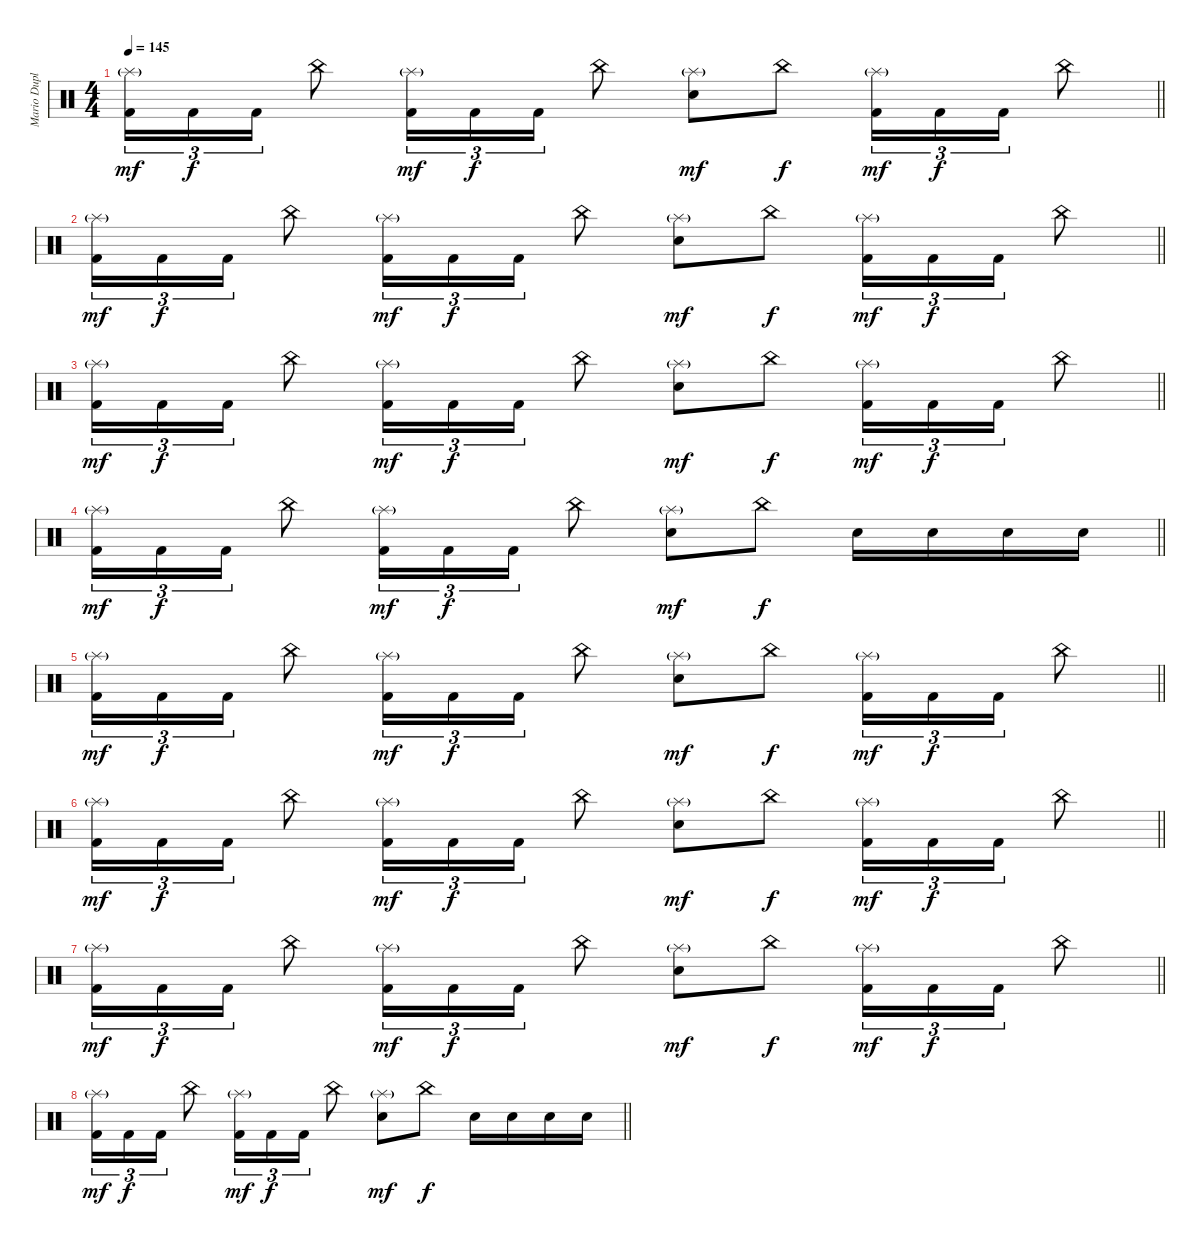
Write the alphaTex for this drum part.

\track ("Mario Duplantier" "Mario Dupl") {instrument percussion}
\staff {score}
\articulation defaults
\ts (4 4)
\tempo 145
\clef neutral
\barLineRight lightlight
\ks c
("Splash (hit)"{g} "Kick (hit) 2").16{tu (3 2) dy mf} "Kick (hit) 2".16{tu (3 2) dy f} "Kick (hit) 2".16{tu (3 2)} "China (hit)".8 ("Splash (hit)"{g} "Kick (hit) 2").16{tu (3 2) dy mf} "Kick (hit) 2".16{tu (3 2) dy f} "Kick (hit) 2".16{tu (3 2)} "China (hit)".8 ("Splash (hit)"{g} "Electric Snare (hit)").8{dy mf} "China (hit)".8{dy f} ("Splash (hit)"{g} "Kick (hit) 2").16{tu (3 2) dy mf} "Kick (hit) 2".16{tu (3 2) dy f} "Kick (hit) 2".16{tu (3 2)} "China (hit)".8 |
\barLineRight lightlight
("Splash (hit)"{g} "Kick (hit) 2").16{tu (3 2) dy mf} "Kick (hit) 2".16{tu (3 2) dy f} "Kick (hit) 2".16{tu (3 2)} "China (hit)".8 ("Splash (hit)"{g} "Kick (hit) 2").16{tu (3 2) dy mf} "Kick (hit) 2".16{tu (3 2) dy f} "Kick (hit) 2".16{tu (3 2)} "China (hit)".8 ("Splash (hit)"{g} "Electric Snare (hit)").8{dy mf} "China (hit)".8{dy f} ("Splash (hit)"{g} "Kick (hit) 2").16{tu (3 2) dy mf} "Kick (hit) 2".16{tu (3 2) dy f} "Kick (hit) 2".16{tu (3 2)} "China (hit)".8 |
\barLineRight lightlight
("Splash (hit)"{g} "Kick (hit) 2").16{tu (3 2) dy mf} "Kick (hit) 2".16{tu (3 2) dy f} "Kick (hit) 2".16{tu (3 2)} "China (hit)".8 ("Splash (hit)"{g} "Kick (hit) 2").16{tu (3 2) dy mf} "Kick (hit) 2".16{tu (3 2) dy f} "Kick (hit) 2".16{tu (3 2)} "China (hit)".8 ("Splash (hit)"{g} "Electric Snare (hit)").8{dy mf} "China (hit)".8{dy f} ("Splash (hit)"{g} "Kick (hit) 2").16{tu (3 2) dy mf} "Kick (hit) 2".16{tu (3 2) dy f} "Kick (hit) 2".16{tu (3 2)} "China (hit)".8 |
\barLineRight lightlight
("Splash (hit)"{g} "Kick (hit) 2").16{tu (3 2) dy mf} "Kick (hit) 2".16{tu (3 2) dy f} "Kick (hit) 2".16{tu (3 2)} "China (hit)".8 ("Splash (hit)"{g} "Kick (hit) 2").16{tu (3 2) dy mf} "Kick (hit) 2".16{tu (3 2) dy f} "Kick (hit) 2".16{tu (3 2)} "China (hit)".8 ("Splash (hit)"{g} "Electric Snare (hit)").8{dy mf} "China (hit)".8{dy f} "Electric Snare (hit)".16 "Electric Snare (hit)".16 "Electric Snare (hit)".16 "Electric Snare (hit)".16 |
\barLineRight lightlight
("Splash (hit)"{g} "Kick (hit) 2").16{tu (3 2) dy mf} "Kick (hit) 2".16{tu (3 2) dy f} "Kick (hit) 2".16{tu (3 2)} "China (hit)".8 ("Splash (hit)"{g} "Kick (hit) 2").16{tu (3 2) dy mf} "Kick (hit) 2".16{tu (3 2) dy f} "Kick (hit) 2".16{tu (3 2)} "China (hit)".8 ("Splash (hit)"{g} "Electric Snare (hit)").8{dy mf} "China (hit)".8{dy f} ("Splash (hit)"{g} "Kick (hit) 2").16{tu (3 2) dy mf} "Kick (hit) 2".16{tu (3 2) dy f} "Kick (hit) 2".16{tu (3 2)} "China (hit)".8 |
\barLineRight lightlight
("Splash (hit)"{g} "Kick (hit) 2").16{tu (3 2) dy mf} "Kick (hit) 2".16{tu (3 2) dy f} "Kick (hit) 2".16{tu (3 2)} "China (hit)".8 ("Splash (hit)"{g} "Kick (hit) 2").16{tu (3 2) dy mf} "Kick (hit) 2".16{tu (3 2) dy f} "Kick (hit) 2".16{tu (3 2)} "China (hit)".8 ("Splash (hit)"{g} "Electric Snare (hit)").8{dy mf} "China (hit)".8{dy f} ("Splash (hit)"{g} "Kick (hit) 2").16{tu (3 2) dy mf} "Kick (hit) 2".16{tu (3 2) dy f} "Kick (hit) 2".16{tu (3 2)} "China (hit)".8 |
\barLineRight lightlight
("Splash (hit)"{g} "Kick (hit) 2").16{tu (3 2) dy mf} "Kick (hit) 2".16{tu (3 2) dy f} "Kick (hit) 2".16{tu (3 2)} "China (hit)".8 ("Splash (hit)"{g} "Kick (hit) 2").16{tu (3 2) dy mf} "Kick (hit) 2".16{tu (3 2) dy f} "Kick (hit) 2".16{tu (3 2)} "China (hit)".8 ("Splash (hit)"{g} "Electric Snare (hit)").8{dy mf} "China (hit)".8{dy f} ("Splash (hit)"{g} "Kick (hit) 2").16{tu (3 2) dy mf} "Kick (hit) 2".16{tu (3 2) dy f} "Kick (hit) 2".16{tu (3 2)} "China (hit)".8 |
\barLineRight lightlight
("Splash (hit)"{g} "Kick (hit) 2").16{tu (3 2) dy mf} "Kick (hit) 2".16{tu (3 2) dy f} "Kick (hit) 2".16{tu (3 2)} "China (hit)".8 ("Splash (hit)"{g} "Kick (hit) 2").16{tu (3 2) dy mf} "Kick (hit) 2".16{tu (3 2) dy f} "Kick (hit) 2".16{tu (3 2)} "China (hit)".8 ("Splash (hit)"{g} "Electric Snare (hit)").8{dy mf} "China (hit)".8{dy f} "Electric Snare (hit)".16 "Electric Snare (hit)".16 "Electric Snare (hit)".16 "Electric Snare (hit)".16
